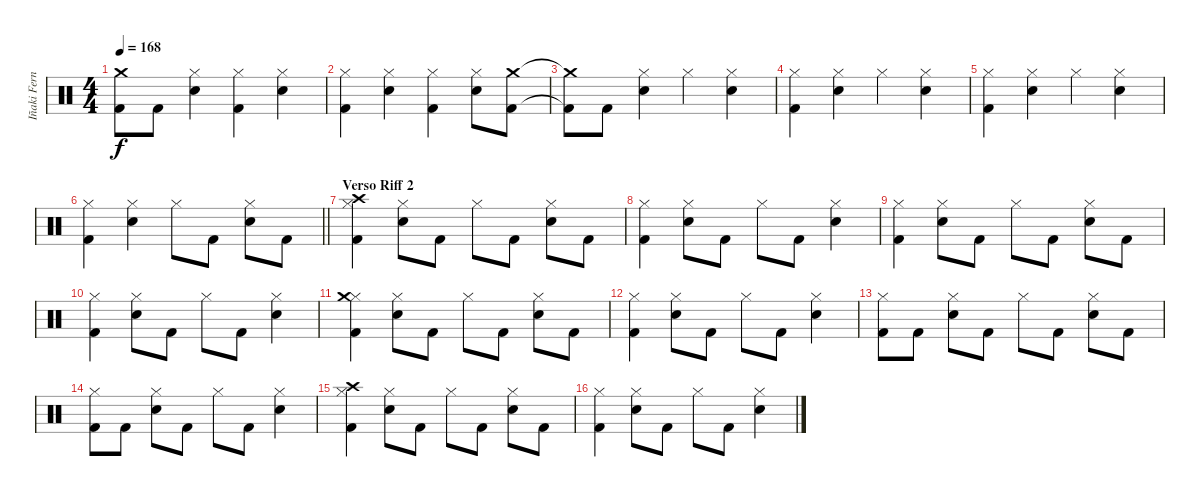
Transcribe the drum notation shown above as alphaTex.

\track ("Iñaki Fernández" "Iñaki Fern") {instrument percussion}
\staff {score}
\articulation defaults
\ts (4 4)
\tempo 168
\clef neutral
\ks c
("Crash medium (hit)"{t} "Kick (hit) 2"{t}).8{dy f} "Kick (hit) 2".8 ("Hi-Hat (closed)" "Snare (hit) 2").4 ("Hi-Hat (closed)" "Kick (hit) 2").4 ("Hi-Hat (closed)" "Snare (hit) 2").4 |
("Hi-Hat (closed)" "Kick (hit) 2").4 ("Hi-Hat (closed)" "Snare (hit) 2").4 ("Hi-Hat (closed)" "Kick (hit) 2").4 ("Hi-Hat (closed)" "Snare (hit) 2").8 ("Crash medium (hit)" "Kick (hit) 2").8 |
("Crash medium (hit)"{t} "Kick (hit) 2"{t}).8 "Kick (hit) 2".8 ("Hi-Hat (closed)" "Snare (hit) 2").4 "Hi-Hat (closed)".4 ("Hi-Hat (closed)" "Snare (hit) 2").4 |
("Hi-Hat (closed)" "Kick (hit) 2").4 ("Hi-Hat (closed)" "Snare (hit) 2").4 "Hi-Hat (closed)".4 ("Hi-Hat (closed)" "Snare (hit) 2").4 |
("Hi-Hat (closed)" "Kick (hit) 2").4 ("Hi-Hat (closed)" "Snare (hit) 2").4 "Hi-Hat (closed)".4 ("Hi-Hat (closed)" "Snare (hit) 2").4 |
\barLineRight lightlight
("Hi-Hat (closed)" "Kick (hit) 2").4 ("Hi-Hat (closed)" "Snare (hit) 2").4 "Hi-Hat (closed)".8 "Kick (hit) 2".8 ("Hi-Hat (closed)" "Snare (hit) 2").8 "Kick (hit) 2".8 |
\section ("" "Verso Riff 2")
("Hi-Hat (closed)" "Crash high (hit)" "Kick (hit) 2").4 ("Hi-Hat (closed)" "Snare (hit) 2").8 "Kick (hit) 2".8 "Hi-Hat (closed)".8 "Kick (hit) 2".8 ("Hi-Hat (closed)" "Snare (hit) 2").8 "Kick (hit) 2".8 |
("Hi-Hat (closed)" "Kick (hit) 2").4 ("Hi-Hat (closed)" "Snare (hit) 2").8 "Kick (hit) 2".8 "Hi-Hat (closed)".8 "Kick (hit) 2".8 ("Hi-Hat (closed)" "Snare (hit) 2").4 |
("Hi-Hat (closed)" "Kick (hit) 2").4 ("Hi-Hat (closed)" "Snare (hit) 2").8 "Kick (hit) 2".8 "Hi-Hat (closed)".8 "Kick (hit) 2".8 ("Hi-Hat (closed)" "Snare (hit) 2").8 "Kick (hit) 2".8 |
("Hi-Hat (closed)" "Kick (hit) 2").4 ("Hi-Hat (closed)" "Snare (hit) 2").8 "Kick (hit) 2".8 "Hi-Hat (closed)".8 "Kick (hit) 2".8 ("Hi-Hat (closed)" "Snare (hit) 2").4 |
("Hi-Hat (closed)" "Crash medium (hit)" "Kick (hit) 2").4 ("Hi-Hat (closed)" "Snare (hit) 2").8 "Kick (hit) 2".8 "Hi-Hat (closed)".8 "Kick (hit) 2".8 ("Hi-Hat (closed)" "Snare (hit) 2").8 "Kick (hit) 2".8 |
("Hi-Hat (closed)" "Kick (hit) 2").4 ("Hi-Hat (closed)" "Snare (hit) 2").8 "Kick (hit) 2".8 "Hi-Hat (closed)".8 "Kick (hit) 2".8 ("Hi-Hat (closed)" "Snare (hit) 2").4 |
("Hi-Hat (closed)" "Kick (hit) 2").8 "Kick (hit) 2".8 ("Hi-Hat (closed)" "Snare (hit) 2").8 "Kick (hit) 2".8 "Hi-Hat (closed)".8 "Kick (hit) 2".8 ("Hi-Hat (closed)" "Snare (hit) 2").8 "Kick (hit) 2".8 |
("Hi-Hat (closed)" "Kick (hit) 2").8 "Kick (hit) 2".8 ("Hi-Hat (closed)" "Snare (hit) 2").8 "Kick (hit) 2".8 "Hi-Hat (closed)".8 "Kick (hit) 2".8 ("Hi-Hat (closed)" "Snare (hit) 2").4 |
("Hi-Hat (closed)" "Crash high (hit)" "Kick (hit) 2").4 ("Hi-Hat (closed)" "Snare (hit) 2").8 "Kick (hit) 2".8 "Hi-Hat (closed)".8 "Kick (hit) 2".8 ("Hi-Hat (closed)" "Snare (hit) 2").8 "Kick (hit) 2".8 |
("Hi-Hat (closed)" "Kick (hit) 2").4 ("Hi-Hat (closed)" "Snare (hit) 2").8 "Kick (hit) 2".8 "Hi-Hat (closed)".8 "Kick (hit) 2".8 ("Hi-Hat (closed)" "Snare (hit) 2").4
